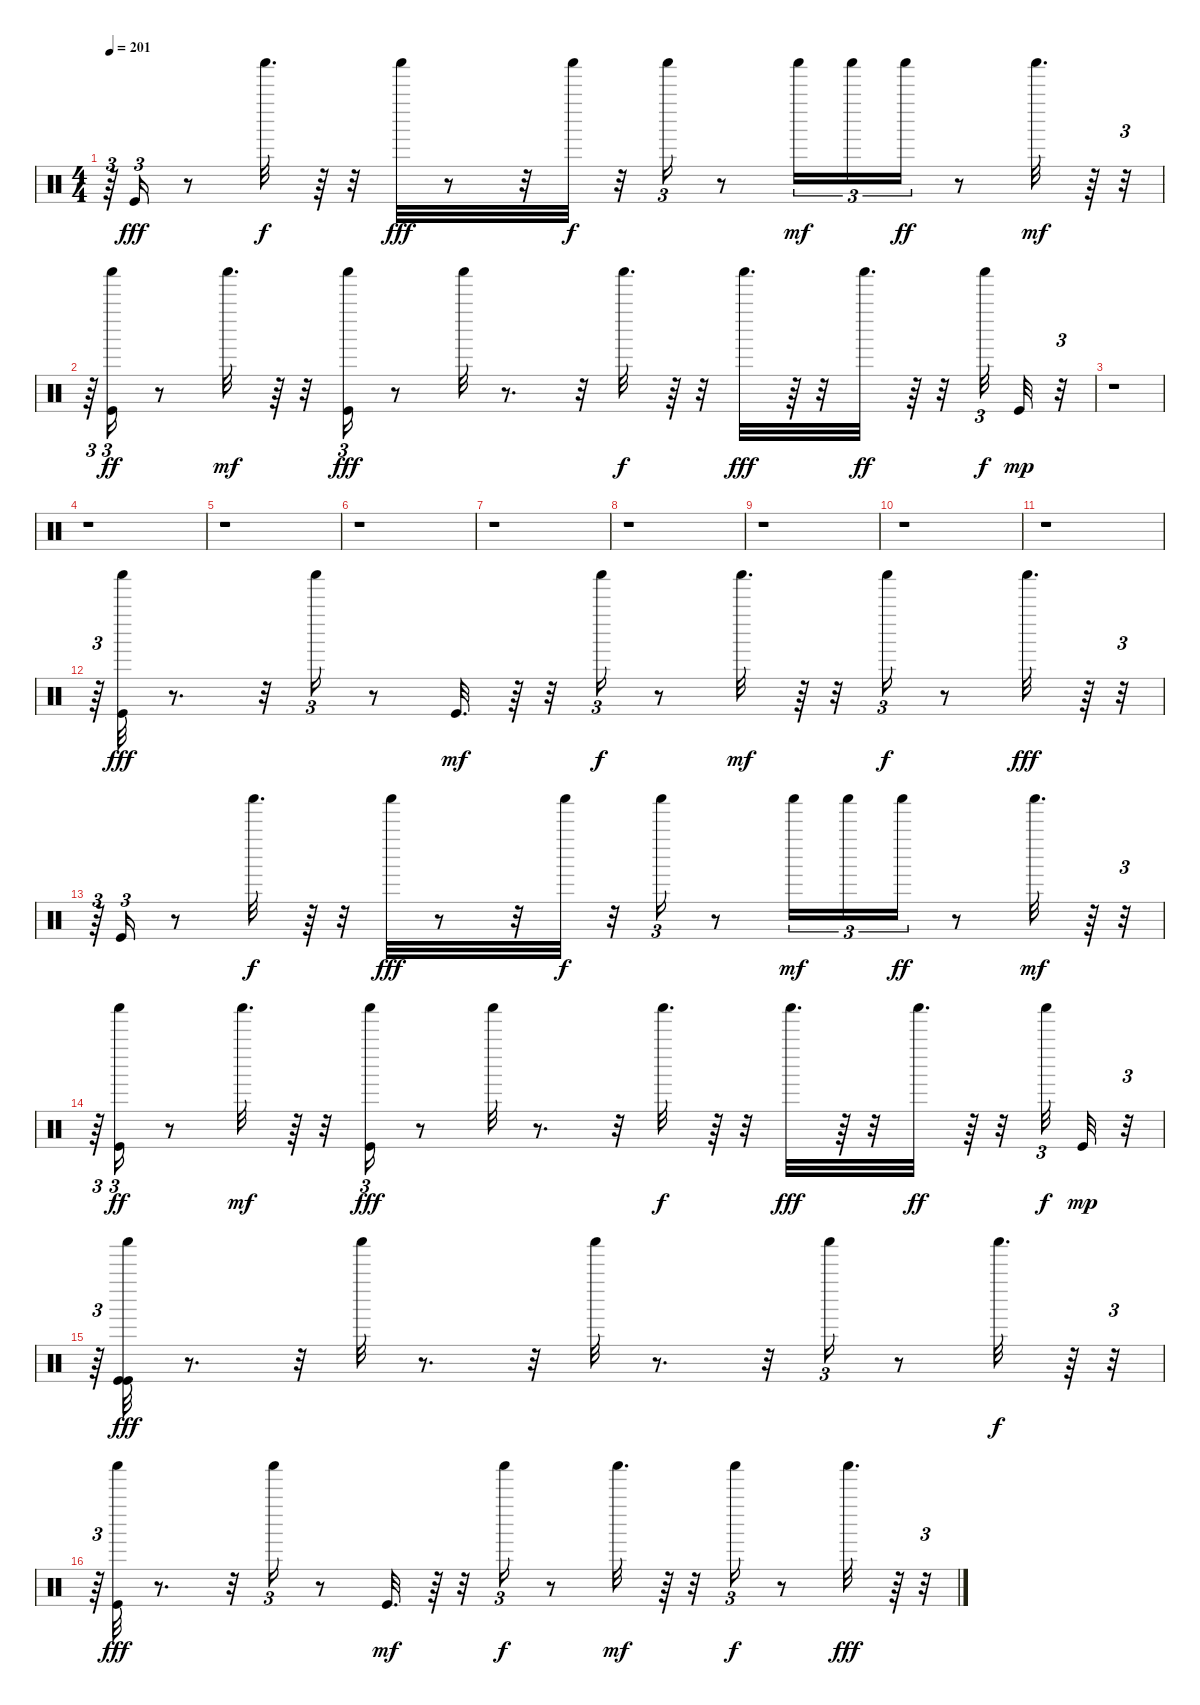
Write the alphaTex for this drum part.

\track "" {instrument percussion}
\staff {score}
\articulation defaults
\ts (4 4)
\tempo 201
\clef neutral
\ks c
r.64{tu (3 2) dy fff} "Kick (hit)".16{tu (3 2)} r.8 "Shaker (hit)".32{d dy f} r.64 r.32 "Shaker (hit)".32{dy fff} r.8 r.32 "Shaker (hit)".32{dy f} r.32 "Shaker (hit)".16{tu (3 2)} r.8 "Shaker (hit)".16{tu (3 2) dy mf} "Shaker (hit)".16{tu (3 2)} "Shaker (hit)".16{tu (3 2) dy ff} r.8 "Shaker (hit)".32{d dy mf} r.64 r.32{tu (3 2)} |
r.64{tu (3 2)} ("Shaker (hit)" "Kick (hit)").16{tu (3 2) dy ff} r.8 "Shaker (hit)".32{d dy mf} r.64 r.32 ("Shaker (hit)" "Kick (hit)").16{tu (3 2) dy fff} r.8 "Shaker (hit)".32 r.8{d} r.32 "Shaker (hit)".32{d dy f} r.64 r.32 "Shaker (hit)".32{d dy fff} r.64 r.32 "Shaker (hit)".32{d dy ff} r.64 r.32 "Shaker (hit)".32{tu (3 2) dy f} "Kick (hit)".32{dy mp} r.32{tu (3 2)} |
r.1 |
r.1 |
r.1 |
r.1 |
r.1 |
r.1 |
r.1 |
r.1 |
r.1 |
r.64{tu (3 2)} ("Shaker (hit)" "Kick (hit)").32{dy fff} r.8{d} r.32 "Shaker (hit)".16{tu (3 2)} r.8 "Kick (hit)".32{d dy mf} r.64 r.32 "Shaker (hit)".16{tu (3 2) dy f} r.8 "Shaker (hit)".32{d dy mf} r.64 r.32 "Shaker (hit)".16{tu (3 2) dy f} r.8 "Shaker (hit)".32{d dy fff} r.64 r.32{tu (3 2)} |
r.64{tu (3 2)} "Kick (hit)".16{tu (3 2)} r.8 "Shaker (hit)".32{d dy f} r.64 r.32 "Shaker (hit)".32{dy fff} r.8 r.32 "Shaker (hit)".32{dy f} r.32 "Shaker (hit)".16{tu (3 2)} r.8 "Shaker (hit)".16{tu (3 2) dy mf} "Shaker (hit)".16{tu (3 2)} "Shaker (hit)".16{tu (3 2) dy ff} r.8 "Shaker (hit)".32{d dy mf} r.64 r.32{tu (3 2)} |
r.64{tu (3 2)} ("Shaker (hit)" "Kick (hit)").16{tu (3 2) dy ff} r.8 "Shaker (hit)".32{d dy mf} r.64 r.32 ("Shaker (hit)" "Kick (hit)").16{tu (3 2) dy fff} r.8 "Shaker (hit)".32 r.8{d} r.32 "Shaker (hit)".32{d dy f} r.64 r.32 "Shaker (hit)".32{d dy fff} r.64 r.32 "Shaker (hit)".32{d dy ff} r.64 r.32 "Shaker (hit)".32{tu (3 2) dy f} "Kick (hit)".32{dy mp} r.32{tu (3 2)} |
r.64{tu (3 2)} ("Shaker (hit)" "Kick (hit)" "Kick (hit)").32{dy fff} r.8{d} r.32 "Shaker (hit)".32 r.8{d} r.32 "Shaker (hit)".32 r.8{d} r.32 "Shaker (hit)".16{tu (3 2)} r.8 "Shaker (hit)".32{d dy f} r.64 r.32{tu (3 2)} |
r.64{tu (3 2)} ("Shaker (hit)" "Kick (hit)").32{dy fff} r.8{d} r.32 "Shaker (hit)".16{tu (3 2)} r.8 "Kick (hit)".32{d dy mf} r.64 r.32 "Shaker (hit)".16{tu (3 2) dy f} r.8 "Shaker (hit)".32{d dy mf} r.64 r.32 "Shaker (hit)".16{tu (3 2) dy f} r.8 "Shaker (hit)".32{d dy fff} r.64 r.32{tu (3 2)}
